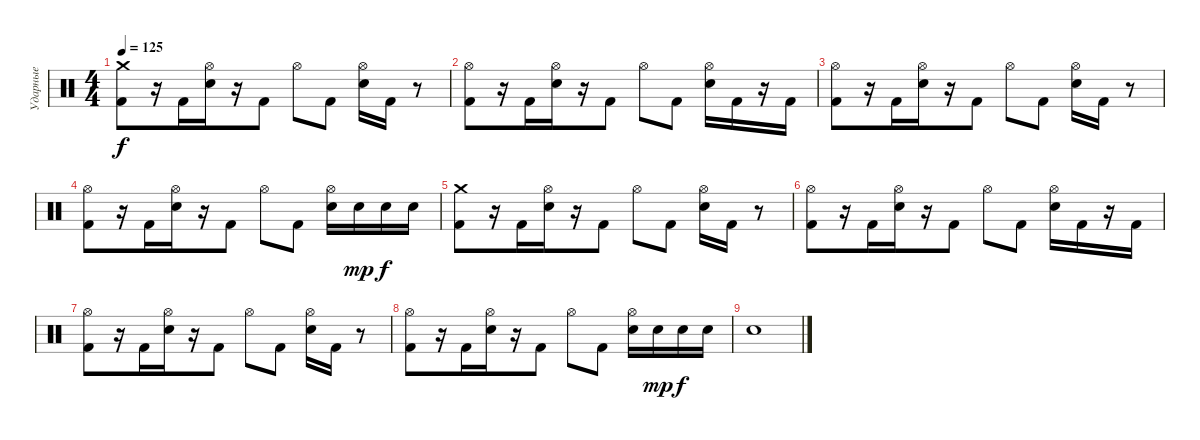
\track ("Ударные" "Ударные") {instrument percussion}
\staff {score}
\articulation defaults
\ts (4 4)
\tempo 125
\clef neutral
\ks c
("Crash medium (hit)" "Kick (hit) 2").8{dy f} r.16 "Kick (hit) 2".16{beam merge} ("Hi-Hat (open)" "Electric Snare (hit)").16 r.16 "Kick (hit) 2".8 "Hi-Hat (open)".8 "Kick (hit) 2".8 ("Hi-Hat (open)" "Electric Snare (hit)").16 "Kick (hit) 2".16 r.8 |
("Hi-Hat (open)" "Kick (hit) 2").8 r.16 "Kick (hit) 2".16{beam merge} ("Hi-Hat (open)" "Electric Snare (hit)").16 r.16 "Kick (hit) 2".8 "Hi-Hat (open)".8 "Kick (hit) 2".8 ("Hi-Hat (open)" "Electric Snare (hit)").16 "Kick (hit) 2".16 r.16 "Kick (hit) 2".16 |
("Hi-Hat (open)" "Kick (hit) 2").8 r.16 "Kick (hit) 2".16{beam merge} ("Hi-Hat (open)" "Electric Snare (hit)").16 r.16 "Kick (hit) 2".8 "Hi-Hat (open)".8 "Kick (hit) 2".8 ("Hi-Hat (open)" "Electric Snare (hit)").16 "Kick (hit) 2".16 r.8 |
("Hi-Hat (open)" "Kick (hit) 2").8 r.16 "Kick (hit) 2".16{beam merge} ("Hi-Hat (open)" "Electric Snare (hit)").16 r.16 "Kick (hit) 2".8 "Hi-Hat (open)".8 "Kick (hit) 2".8 ("Hi-Hat (open)" "Electric Snare (hit)").16 "Electric Snare (hit)".16{dy mp} "Electric Snare (hit)".16{dy f} "Electric Snare (hit)".16 |
("Crash medium (hit)" "Kick (hit) 2").8 r.16 "Kick (hit) 2".16{beam merge} ("Hi-Hat (open)" "Electric Snare (hit)").16 r.16 "Kick (hit) 2".8 "Hi-Hat (open)".8 "Kick (hit) 2".8 ("Hi-Hat (open)" "Electric Snare (hit)").16 "Kick (hit) 2".16 r.8 |
("Hi-Hat (open)" "Kick (hit) 2").8 r.16 "Kick (hit) 2".16{beam merge} ("Hi-Hat (open)" "Electric Snare (hit)").16 r.16 "Kick (hit) 2".8 "Hi-Hat (open)".8 "Kick (hit) 2".8 ("Hi-Hat (open)" "Electric Snare (hit)").16 "Kick (hit) 2".16 r.16 "Kick (hit) 2".16 |
("Hi-Hat (open)" "Kick (hit) 2").8 r.16 "Kick (hit) 2".16{beam merge} ("Hi-Hat (open)" "Electric Snare (hit)").16 r.16 "Kick (hit) 2".8 "Hi-Hat (open)".8 "Kick (hit) 2".8 ("Hi-Hat (open)" "Electric Snare (hit)").16 "Kick (hit) 2".16 r.8 |
("Hi-Hat (open)" "Kick (hit) 2").8 r.16 "Kick (hit) 2".16{beam merge} ("Hi-Hat (open)" "Electric Snare (hit)").16 r.16 "Kick (hit) 2".8 "Hi-Hat (open)".8 "Kick (hit) 2".8 ("Hi-Hat (open)" "Electric Snare (hit)").16 "Electric Snare (hit)".16{dy mp} "Electric Snare (hit)".16{dy f} "Electric Snare (hit)".16 |
"Electric Snare (hit)".1
